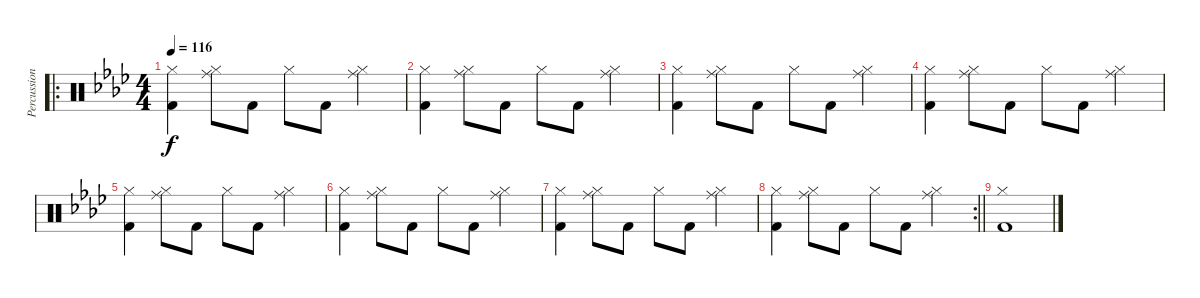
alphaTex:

\track ("Percussions" "Percussion") {instrument percussion}
\staff {score}
\articulation defaults
\ro
\ts (4 4)
\tempo 116
\clef neutral
\ks ab
("Kick (hit) 2" "Hi-Hat (closed)").4{dy f} ("Ride (middle)" "Hi-Hat (closed)").8 "Kick (hit) 2".8 "Hi-Hat (closed)".8 "Kick (hit) 2".8 ("Ride (middle)" "Hi-Hat (closed)").4 |
("Kick (hit) 2" "Hi-Hat (closed)").4 ("Ride (middle)" "Hi-Hat (closed)").8 "Kick (hit) 2".8 "Hi-Hat (closed)".8 "Kick (hit) 2".8 ("Ride (middle)" "Hi-Hat (closed)").4 |
("Kick (hit) 2" "Hi-Hat (closed)").4 ("Ride (middle)" "Hi-Hat (closed)").8 "Kick (hit) 2".8 "Hi-Hat (closed)".8 "Kick (hit) 2".8 ("Ride (middle)" "Hi-Hat (closed)").4 |
("Kick (hit) 2" "Hi-Hat (closed)").4 ("Ride (middle)" "Hi-Hat (closed)").8 "Kick (hit) 2".8 "Hi-Hat (closed)".8 "Kick (hit) 2".8 ("Ride (middle)" "Hi-Hat (closed)").4 |
("Kick (hit) 2" "Hi-Hat (closed)").4 ("Ride (middle)" "Hi-Hat (closed)").8 "Kick (hit) 2".8 "Hi-Hat (closed)".8 "Kick (hit) 2".8 ("Ride (middle)" "Hi-Hat (closed)").4 |
("Kick (hit) 2" "Hi-Hat (closed)").4 ("Ride (middle)" "Hi-Hat (closed)").8 "Kick (hit) 2".8 "Hi-Hat (closed)".8 "Kick (hit) 2".8 ("Ride (middle)" "Hi-Hat (closed)").4 |
("Kick (hit) 2" "Hi-Hat (closed)").4 ("Ride (middle)" "Hi-Hat (closed)").8 "Kick (hit) 2".8 "Hi-Hat (closed)".8 "Kick (hit) 2".8 ("Ride (middle)" "Hi-Hat (closed)").4 |
\rc 2
\barLineRight lightlight
("Kick (hit) 2" "Hi-Hat (closed)").4 ("Ride (middle)" "Hi-Hat (closed)").8 "Kick (hit) 2".8 "Hi-Hat (closed)".8 "Kick (hit) 2".8 ("Ride (middle)" "Hi-Hat (closed)").4 |
("Kick (hit) 2" "Hi-Hat (closed)").1
